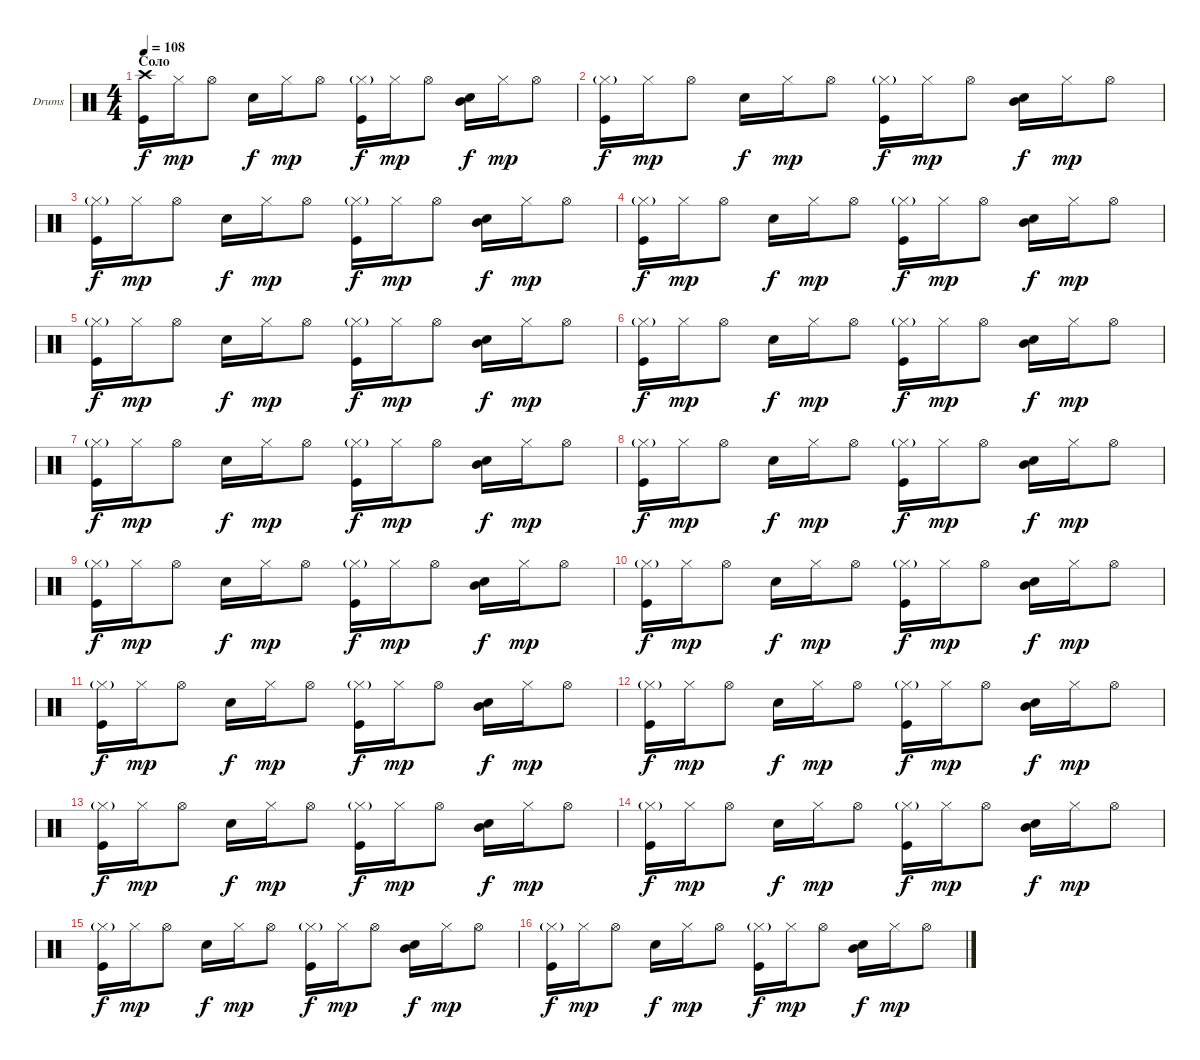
\bracketExtendMode groupsimilarinstruments
\firstSystemTrackNameOrientation horizontal
\otherSystemsTrackNameOrientation horizontal
\track ("Е. Кулаков" "Drums") {instrument percussion}
\staff {score}
\articulation defaults
\ts (4 4)
\section ("" "Соло")
\tempo 108
\clef neutral
\ks c
("Crash high (hit)" "Kick (hit)").16{dy f} "Hi-Hat (closed)".16{dy mp} "Hi-Hat (open)".8 "Snare (hit) 2".16{dy f} "Hi-Hat (closed)".16{dy mp} "Hi-Hat (open)".8 ("Hi-Hat (closed)"{g} "Kick (hit)").16{dy f} "Hi-Hat (closed)".16{dy mp} "Hi-Hat (open)".8 ("Snare (hit) 2" "Mid Tom (hit)").16{dy f} "Hi-Hat (closed)".16{dy mp} "Hi-Hat (open)".8 |
("Hi-Hat (closed)"{g} "Kick (hit)").16{dy f} "Hi-Hat (closed)".16{dy mp} "Hi-Hat (open)".8 "Snare (hit) 2".16{dy f} "Hi-Hat (closed)".16{dy mp} "Hi-Hat (open)".8 ("Hi-Hat (closed)"{g} "Kick (hit)").16{dy f} "Hi-Hat (closed)".16{dy mp} "Hi-Hat (open)".8 ("Snare (hit) 2" "Mid Tom (hit)").16{dy f} "Hi-Hat (closed)".16{dy mp} "Hi-Hat (open)".8 |
("Hi-Hat (closed)"{g} "Kick (hit)").16{dy f} "Hi-Hat (closed)".16{dy mp} "Hi-Hat (open)".8 "Snare (hit) 2".16{dy f} "Hi-Hat (closed)".16{dy mp} "Hi-Hat (open)".8 ("Hi-Hat (closed)"{g} "Kick (hit)").16{dy f} "Hi-Hat (closed)".16{dy mp} "Hi-Hat (open)".8 ("Snare (hit) 2" "Mid Tom (hit)").16{dy f} "Hi-Hat (closed)".16{dy mp} "Hi-Hat (open)".8 |
("Hi-Hat (closed)"{g} "Kick (hit)").16{dy f} "Hi-Hat (closed)".16{dy mp} "Hi-Hat (open)".8 "Snare (hit) 2".16{dy f} "Hi-Hat (closed)".16{dy mp} "Hi-Hat (open)".8 ("Hi-Hat (closed)"{g} "Kick (hit)").16{dy f} "Hi-Hat (closed)".16{dy mp} "Hi-Hat (open)".8 ("Snare (hit) 2" "Mid Tom (hit)").16{dy f} "Hi-Hat (closed)".16{dy mp} "Hi-Hat (open)".8 |
("Hi-Hat (closed)"{g} "Kick (hit)").16{dy f} "Hi-Hat (closed)".16{dy mp} "Hi-Hat (open)".8 "Snare (hit) 2".16{dy f} "Hi-Hat (closed)".16{dy mp} "Hi-Hat (open)".8 ("Hi-Hat (closed)"{g} "Kick (hit)").16{dy f} "Hi-Hat (closed)".16{dy mp} "Hi-Hat (open)".8 ("Snare (hit) 2" "Mid Tom (hit)").16{dy f} "Hi-Hat (closed)".16{dy mp} "Hi-Hat (open)".8 |
("Hi-Hat (closed)"{g} "Kick (hit)").16{dy f} "Hi-Hat (closed)".16{dy mp} "Hi-Hat (open)".8 "Snare (hit) 2".16{dy f} "Hi-Hat (closed)".16{dy mp} "Hi-Hat (open)".8 ("Hi-Hat (closed)"{g} "Kick (hit)").16{dy f} "Hi-Hat (closed)".16{dy mp} "Hi-Hat (open)".8 ("Snare (hit) 2" "Mid Tom (hit)").16{dy f} "Hi-Hat (closed)".16{dy mp} "Hi-Hat (open)".8 |
("Hi-Hat (closed)"{g} "Kick (hit)").16{dy f} "Hi-Hat (closed)".16{dy mp} "Hi-Hat (open)".8 "Snare (hit) 2".16{dy f} "Hi-Hat (closed)".16{dy mp} "Hi-Hat (open)".8 ("Hi-Hat (closed)"{g} "Kick (hit)").16{dy f} "Hi-Hat (closed)".16{dy mp} "Hi-Hat (open)".8 ("Snare (hit) 2" "Mid Tom (hit)").16{dy f} "Hi-Hat (closed)".16{dy mp} "Hi-Hat (open)".8 |
("Hi-Hat (closed)"{g} "Kick (hit)").16{dy f} "Hi-Hat (closed)".16{dy mp} "Hi-Hat (open)".8 "Snare (hit) 2".16{dy f} "Hi-Hat (closed)".16{dy mp} "Hi-Hat (open)".8 ("Hi-Hat (closed)"{g} "Kick (hit)").16{dy f} "Hi-Hat (closed)".16{dy mp} "Hi-Hat (open)".8 ("Snare (hit) 2" "Mid Tom (hit)").16{dy f} "Hi-Hat (closed)".16{dy mp} "Hi-Hat (open)".8 |
("Hi-Hat (closed)"{g} "Kick (hit)").16{dy f} "Hi-Hat (closed)".16{dy mp} "Hi-Hat (open)".8 "Snare (hit) 2".16{dy f} "Hi-Hat (closed)".16{dy mp} "Hi-Hat (open)".8 ("Hi-Hat (closed)"{g} "Kick (hit)").16{dy f} "Hi-Hat (closed)".16{dy mp} "Hi-Hat (open)".8 ("Snare (hit) 2" "Mid Tom (hit)").16{dy f} "Hi-Hat (closed)".16{dy mp} "Hi-Hat (open)".8 |
("Hi-Hat (closed)"{g} "Kick (hit)").16{dy f} "Hi-Hat (closed)".16{dy mp} "Hi-Hat (open)".8 "Snare (hit) 2".16{dy f} "Hi-Hat (closed)".16{dy mp} "Hi-Hat (open)".8 ("Hi-Hat (closed)"{g} "Kick (hit)").16{dy f} "Hi-Hat (closed)".16{dy mp} "Hi-Hat (open)".8 ("Snare (hit) 2" "Mid Tom (hit)").16{dy f} "Hi-Hat (closed)".16{dy mp} "Hi-Hat (open)".8 |
("Hi-Hat (closed)"{g} "Kick (hit)").16{dy f} "Hi-Hat (closed)".16{dy mp} "Hi-Hat (open)".8 "Snare (hit) 2".16{dy f} "Hi-Hat (closed)".16{dy mp} "Hi-Hat (open)".8 ("Hi-Hat (closed)"{g} "Kick (hit)").16{dy f} "Hi-Hat (closed)".16{dy mp} "Hi-Hat (open)".8 ("Snare (hit) 2" "Mid Tom (hit)").16{dy f} "Hi-Hat (closed)".16{dy mp} "Hi-Hat (open)".8 |
("Hi-Hat (closed)"{g} "Kick (hit)").16{dy f} "Hi-Hat (closed)".16{dy mp} "Hi-Hat (open)".8 "Snare (hit) 2".16{dy f} "Hi-Hat (closed)".16{dy mp} "Hi-Hat (open)".8 ("Hi-Hat (closed)"{g} "Kick (hit)").16{dy f} "Hi-Hat (closed)".16{dy mp} "Hi-Hat (open)".8 ("Snare (hit) 2" "Mid Tom (hit)").16{dy f} "Hi-Hat (closed)".16{dy mp} "Hi-Hat (open)".8 |
("Hi-Hat (closed)"{g} "Kick (hit)").16{dy f} "Hi-Hat (closed)".16{dy mp} "Hi-Hat (open)".8 "Snare (hit) 2".16{dy f} "Hi-Hat (closed)".16{dy mp} "Hi-Hat (open)".8 ("Hi-Hat (closed)"{g} "Kick (hit)").16{dy f} "Hi-Hat (closed)".16{dy mp} "Hi-Hat (open)".8 ("Snare (hit) 2" "Mid Tom (hit)").16{dy f} "Hi-Hat (closed)".16{dy mp} "Hi-Hat (open)".8 |
("Hi-Hat (closed)"{g} "Kick (hit)").16{dy f} "Hi-Hat (closed)".16{dy mp} "Hi-Hat (open)".8 "Snare (hit) 2".16{dy f} "Hi-Hat (closed)".16{dy mp} "Hi-Hat (open)".8 ("Hi-Hat (closed)"{g} "Kick (hit)").16{dy f} "Hi-Hat (closed)".16{dy mp} "Hi-Hat (open)".8 ("Snare (hit) 2" "Mid Tom (hit)").16{dy f} "Hi-Hat (closed)".16{dy mp} "Hi-Hat (open)".8 |
("Hi-Hat (closed)"{g} "Kick (hit)").16{dy f} "Hi-Hat (closed)".16{dy mp} "Hi-Hat (open)".8 "Snare (hit) 2".16{dy f} "Hi-Hat (closed)".16{dy mp} "Hi-Hat (open)".8 ("Hi-Hat (closed)"{g} "Kick (hit)").16{dy f} "Hi-Hat (closed)".16{dy mp} "Hi-Hat (open)".8 ("Snare (hit) 2" "Mid Tom (hit)").16{dy f} "Hi-Hat (closed)".16{dy mp} "Hi-Hat (open)".8 |
("Hi-Hat (closed)"{g} "Kick (hit)").16{dy f} "Hi-Hat (closed)".16{dy mp} "Hi-Hat (open)".8 "Snare (hit) 2".16{dy f} "Hi-Hat (closed)".16{dy mp} "Hi-Hat (open)".8 ("Hi-Hat (closed)"{g} "Kick (hit)").16{dy f} "Hi-Hat (closed)".16{dy mp} "Hi-Hat (open)".8 ("Snare (hit) 2" "Mid Tom (hit)").16{dy f} "Hi-Hat (closed)".16{dy mp} "Hi-Hat (open)".8
